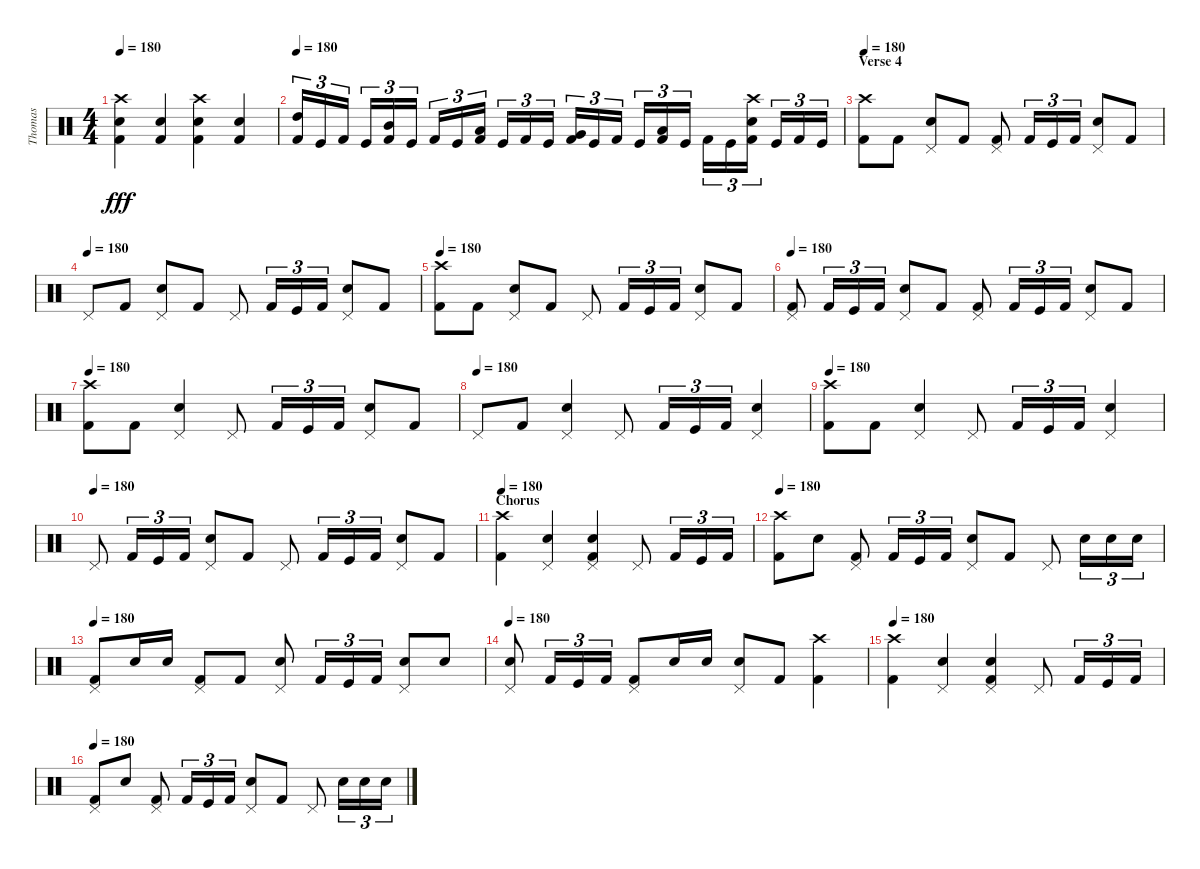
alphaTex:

\track ("Thomas" "Thomas") {instrument percussion}
\staff {score}
\articulation defaults
\ts (4 4)
\tempo 180
\clef neutral
\ks c
("Crash high (hit)" "Snare (hit) 2" "Kick (hit) 2").4{dy fff} ("Snare (hit) 2" "Kick (hit) 2").4 ("Crash high (hit)" "Snare (hit) 2" "Kick (hit) 2").4 ("Snare (hit) 2" "Kick (hit) 2").4 |
\tempo 180
("High Tom (hit)" "Kick (hit) 2").16{tu (3 2)} "Kick (hit)".16{tu (3 2)} "Kick (hit) 2".16{tu (3 2)} "Kick (hit)".16{tu (3 2)} ("Mid Tom (hit)" "Kick (hit) 2").16{tu (3 2)} "Kick (hit)".16{tu (3 2)} "Kick (hit) 2".16{tu (3 2)} "Kick (hit)".16{tu (3 2)} ("Low Tom (hit)" "Kick (hit) 2").16{tu (3 2)} "Kick (hit)".16{tu (3 2)} "Kick (hit) 2".16{tu (3 2)} "Kick (hit)".16{tu (3 2)} ("Very Low Tom (hit)" "Kick (hit) 2").16{tu (3 2)} "Kick (hit)".16{tu (3 2)} "Kick (hit) 2".16{tu (3 2)} "Kick (hit)".16{tu (3 2)} ("Low Floor Tom (hit)" "Kick (hit) 2").16{tu (3 2)} "Kick (hit)".16{tu (3 2)} "Kick (hit) 2".16{tu (3 2)} "Kick (hit)".16{tu (3 2)} ("Crash high (hit)" "Snare (hit) 2" "Kick (hit) 2").16{tu (3 2)} "Kick (hit)".16{tu (3 2)} "Kick (hit) 2".16{tu (3 2)} "Kick (hit)".16{tu (3 2)} |
\section ("" "Verse 4")
\tempo 180
("Crash high (hit)" "Kick (hit) 2").8 "Kick (hit) 2".8 ("Pedal Hi-Hat (hit)" "Snare (hit) 2").8 "Kick (hit) 2".8 ("Pedal Hi-Hat (hit)" "Kick (hit) 2").8 "Kick (hit) 2".16{tu (3 2)} "Kick (hit)".16{tu (3 2)} "Kick (hit) 2".16{tu (3 2)} ("Pedal Hi-Hat (hit)" "Snare (hit) 2").8 "Kick (hit) 2".8 |
\tempo (180)
"Pedal Hi-Hat (hit)".8 "Kick (hit) 2".8 ("Pedal Hi-Hat (hit)" "Snare (hit) 2").8 "Kick (hit) 2".8 "Pedal Hi-Hat (hit)".8 "Kick (hit) 2".16{tu (3 2)} "Kick (hit)".16{tu (3 2)} "Kick (hit) 2".16{tu (3 2)} ("Pedal Hi-Hat (hit)" "Snare (hit) 2").8 "Kick (hit) 2".8 |
\tempo 180
("Crash high (hit)" "Kick (hit) 2").8 "Kick (hit) 2".8 ("Pedal Hi-Hat (hit)" "Snare (hit) 2").8 "Kick (hit) 2".8 "Pedal Hi-Hat (hit)".8 "Kick (hit) 2".16{tu (3 2)} "Kick (hit)".16{tu (3 2)} "Kick (hit) 2".16{tu (3 2)} ("Pedal Hi-Hat (hit)" "Snare (hit) 2").8 "Kick (hit) 2".8 |
\tempo 180
("Pedal Hi-Hat (hit)" "Kick (hit) 2").8 "Kick (hit) 2".16{tu (3 2)} "Kick (hit)".16{tu (3 2)} "Kick (hit) 2".16{tu (3 2)} ("Pedal Hi-Hat (hit)" "Snare (hit) 2").8 "Kick (hit) 2".8 ("Pedal Hi-Hat (hit)" "Kick (hit) 2").8 "Kick (hit) 2".16{tu (3 2)} "Kick (hit)".16{tu (3 2)} "Kick (hit) 2".16{tu (3 2)} ("Pedal Hi-Hat (hit)" "Snare (hit) 2").8 "Kick (hit) 2".8 |
\tempo 180
("Crash high (hit)" "Kick (hit) 2").8 "Kick (hit) 2".8 ("Pedal Hi-Hat (hit)" "Snare (hit) 2").4 "Pedal Hi-Hat (hit)".8 "Kick (hit) 2".16{tu (3 2)} "Kick (hit)".16{tu (3 2)} "Kick (hit) 2".16{tu (3 2)} ("Pedal Hi-Hat (hit)" "Snare (hit) 2").8 "Kick (hit) 2".8 |
\tempo (180)
"Pedal Hi-Hat (hit)".8 "Kick (hit) 2".8 ("Pedal Hi-Hat (hit)" "Snare (hit) 2").4 "Pedal Hi-Hat (hit)".8 "Kick (hit) 2".16{tu (3 2)} "Kick (hit)".16{tu (3 2)} "Kick (hit) 2".16{tu (3 2)} ("Pedal Hi-Hat (hit)" "Snare (hit) 2").4 |
\tempo 180
("Crash high (hit)" "Kick (hit) 2").8 "Kick (hit) 2".8 ("Pedal Hi-Hat (hit)" "Snare (hit) 2").4 "Pedal Hi-Hat (hit)".8 "Kick (hit) 2".16{tu (3 2)} "Kick (hit)".16{tu (3 2)} "Kick (hit) 2".16{tu (3 2)} ("Pedal Hi-Hat (hit)" "Snare (hit) 2").4 |
\tempo (180)
"Pedal Hi-Hat (hit)".8 "Kick (hit) 2".16{tu (3 2)} "Kick (hit)".16{tu (3 2)} "Kick (hit) 2".16{tu (3 2)} ("Pedal Hi-Hat (hit)" "Snare (hit) 2").8 "Kick (hit) 2".8 "Pedal Hi-Hat (hit)".8 "Kick (hit) 2".16{tu (3 2)} "Kick (hit)".16{tu (3 2)} "Kick (hit) 2".16{tu (3 2)} ("Pedal Hi-Hat (hit)" "Snare (hit) 2").8 "Kick (hit) 2".8 |
\section ("" "Chorus")
\tempo 180
("Crash high (hit)" "Kick (hit) 2").4 ("Pedal Hi-Hat (hit)" "Snare (hit) 2").4 ("Pedal Hi-Hat (hit)" "Snare (hit) 2" "Kick (hit) 2").4 "Pedal Hi-Hat (hit)".8 "Kick (hit) 2".16{tu (3 2)} "Kick (hit)".16{tu (3 2)} "Kick (hit) 2".16{tu (3 2)} |
\tempo 180
("Crash high (hit)" "Kick (hit) 2").8 "Snare (hit) 2".8 ("Pedal Hi-Hat (hit)" "Kick (hit) 2").8 "Kick (hit) 2".16{tu (3 2)} "Kick (hit)".16{tu (3 2)} "Kick (hit) 2".16{tu (3 2)} ("Pedal Hi-Hat (hit)" "Snare (hit) 2").8 "Kick (hit) 2".8 "Pedal Hi-Hat (hit)".8 "Snare (hit) 2".16{tu (3 2)} "Snare (hit) 2".16{tu (3 2)} "Snare (hit) 2".16{tu (3 2)} |
\tempo 180
("Pedal Hi-Hat (hit)" "Kick (hit) 2").8 "Snare (hit) 2".16 "Snare (hit) 2".16 ("Pedal Hi-Hat (hit)" "Kick (hit) 2").8 "Kick (hit) 2".8 ("Pedal Hi-Hat (hit)" "Snare (hit) 2").8 "Kick (hit) 2".16{tu (3 2)} "Kick (hit)".16{tu (3 2)} "Kick (hit) 2".16{tu (3 2)} ("Pedal Hi-Hat (hit)" "Snare (hit) 2").8 "Snare (hit) 2".8 |
\tempo 180
("Pedal Hi-Hat (hit)" "Snare (hit) 2").8 "Kick (hit) 2".16{tu (3 2)} "Kick (hit)".16{tu (3 2)} "Kick (hit) 2".16{tu (3 2)} ("Pedal Hi-Hat (hit)" "Kick (hit) 2").8 "Snare (hit) 2".16 "Snare (hit) 2".16 ("Pedal Hi-Hat (hit)" "Snare (hit) 2").8 "Kick (hit) 2".8 ("Crash high (hit)" "Kick (hit) 2").4 |
\tempo 180
("Crash high (hit)" "Kick (hit) 2").4 ("Pedal Hi-Hat (hit)" "Snare (hit) 2").4 ("Pedal Hi-Hat (hit)" "Snare (hit) 2" "Kick (hit) 2").4 "Pedal Hi-Hat (hit)".8 "Kick (hit) 2".16{tu (3 2)} "Kick (hit)".16{tu (3 2)} "Kick (hit) 2".16{tu (3 2)} |
\tempo 180
("Pedal Hi-Hat (hit)" "Kick (hit) 2").8 "Snare (hit) 2".8 ("Pedal Hi-Hat (hit)" "Kick (hit) 2").8 "Kick (hit) 2".16{tu (3 2)} "Kick (hit)".16{tu (3 2)} "Kick (hit) 2".16{tu (3 2)} ("Pedal Hi-Hat (hit)" "Snare (hit) 2").8 "Kick (hit) 2".8 "Pedal Hi-Hat (hit)".8 "Snare (hit) 2".16{tu (3 2)} "Snare (hit) 2".16{tu (3 2)} "Snare (hit) 2".16{tu (3 2)}
